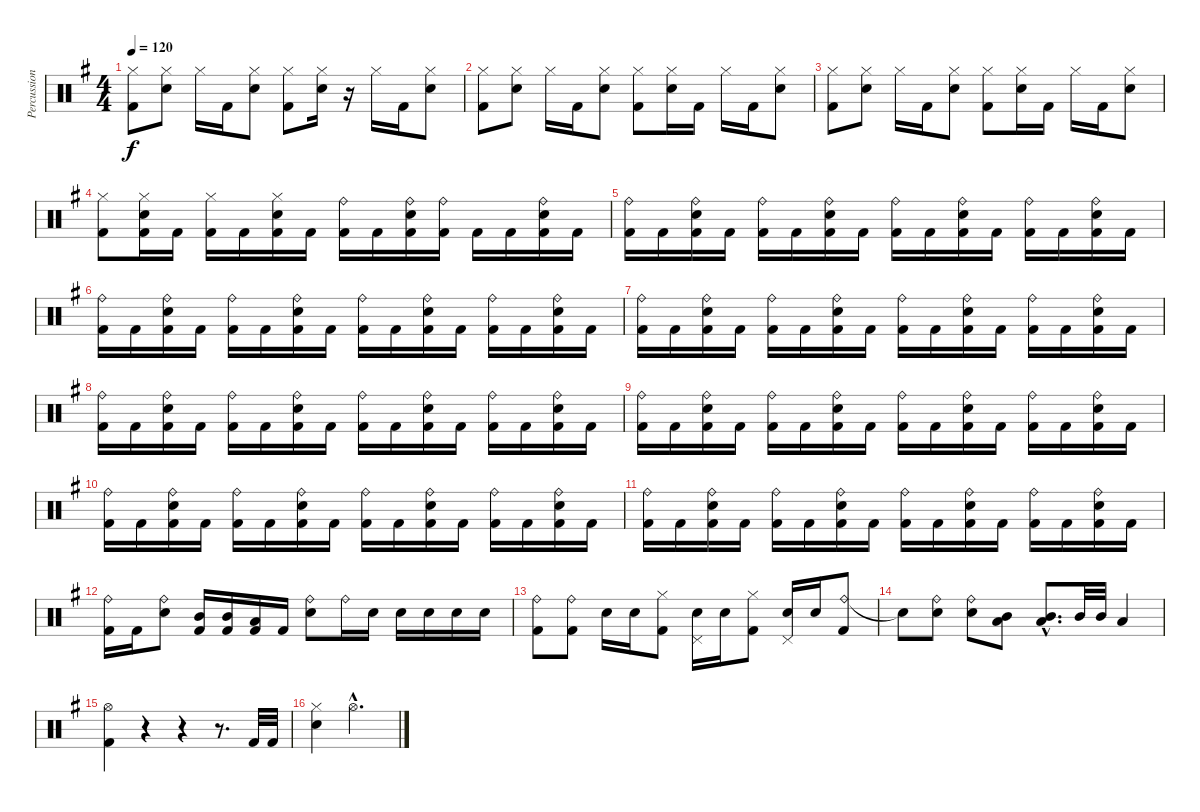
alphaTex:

\track ("Percussion" "Percussion") {instrument percussion}
\staff {score}
\articulation defaults
\ts (4 4)
\tempo 120
\clef neutral
\ks eminor
("Hi-Hat (closed)" "Kick (hit) 2").8{dy f} ("Hi-Hat (closed)" "Snare (hit) 2").8 "Hi-Hat (closed)".16 "Kick (hit) 2".16 ("Hi-Hat (closed)" "Snare (hit) 2").8 ("Hi-Hat (closed)" "Kick (hit) 2").8 ("Hi-Hat (closed)" "Snare (hit) 2").16 r.16 "Hi-Hat (closed)".16 "Kick (hit) 2".16 ("Hi-Hat (closed)" "Snare (hit) 2").8 |
("Hi-Hat (closed)" "Kick (hit) 2").8 ("Hi-Hat (closed)" "Snare (hit) 2").8 "Hi-Hat (closed)".16 "Kick (hit) 2".16 ("Hi-Hat (closed)" "Snare (hit) 2").8 ("Hi-Hat (closed)" "Kick (hit) 2").8 ("Hi-Hat (closed)" "Snare (hit) 2").16 "Kick (hit) 2".16 "Hi-Hat (closed)".16 "Kick (hit) 2".16 ("Hi-Hat (closed)" "Snare (hit) 2").8 |
("Hi-Hat (closed)" "Kick (hit) 2").8 ("Hi-Hat (closed)" "Snare (hit) 2").8 "Hi-Hat (closed)".16 "Kick (hit) 2".16 ("Hi-Hat (closed)" "Snare (hit) 2").8 ("Hi-Hat (closed)" "Kick (hit) 2").8 ("Hi-Hat (closed)" "Snare (hit) 2").16 "Kick (hit) 2".16 "Hi-Hat (closed)".16 "Kick (hit) 2".16 ("Hi-Hat (closed)" "Snare (hit) 2").8 |
("Hi-Hat (closed)" "Kick (hit) 2").8 ("Hi-Hat (closed)" "Snare (hit) 2" "Kick (hit) 2").16 "Kick (hit) 2".16 ("Hi-Hat (closed)" "Kick (hit) 2").16 "Kick (hit) 2".16 ("Hi-Hat (closed)" "Snare (hit) 2" "Kick (hit) 2").16 "Kick (hit) 2".16 ("Ride (bell)" "Kick (hit) 2").16 "Kick (hit) 2".16 ("Ride (bell)" "Snare (hit) 2" "Kick (hit) 2").16 ("Ride (bell)" "Kick (hit) 2").16 "Kick (hit) 2".16 "Kick (hit) 2".16 ("Ride (bell)" "Snare (hit) 2" "Kick (hit) 2").16 "Kick (hit) 2".16 |
("Ride (bell)" "Kick (hit) 2").16 "Kick (hit) 2".16 ("Ride (bell)" "Snare (hit) 2" "Kick (hit) 2").16 "Kick (hit) 2".16 ("Ride (bell)" "Kick (hit) 2").16 "Kick (hit) 2".16 ("Ride (bell)" "Snare (hit) 2" "Kick (hit) 2").16 "Kick (hit) 2".16 ("Ride (bell)" "Kick (hit) 2").16 "Kick (hit) 2".16 ("Ride (bell)" "Snare (hit) 2" "Kick (hit) 2").16 "Kick (hit) 2".16 ("Ride (bell)" "Kick (hit) 2").16 "Kick (hit) 2".16 ("Ride (bell)" "Snare (hit) 2" "Kick (hit) 2").16 "Kick (hit) 2".16 |
("Ride (bell)" "Kick (hit) 2").16 "Kick (hit) 2".16 ("Ride (bell)" "Snare (hit) 2" "Kick (hit) 2").16 "Kick (hit) 2".16 ("Ride (bell)" "Kick (hit) 2").16 "Kick (hit) 2".16 ("Ride (bell)" "Snare (hit) 2" "Kick (hit) 2").16 "Kick (hit) 2".16 ("Ride (bell)" "Kick (hit) 2").16 "Kick (hit) 2".16 ("Ride (bell)" "Snare (hit) 2" "Kick (hit) 2").16 "Kick (hit) 2".16 ("Ride (bell)" "Kick (hit) 2").16 "Kick (hit) 2".16 ("Ride (bell)" "Snare (hit) 2" "Kick (hit) 2").16 "Kick (hit) 2".16 |
("Ride (bell)" "Kick (hit) 2").16 "Kick (hit) 2".16 ("Ride (bell)" "Snare (hit) 2" "Kick (hit) 2").16 "Kick (hit) 2".16 ("Ride (bell)" "Kick (hit) 2").16 "Kick (hit) 2".16 ("Ride (bell)" "Snare (hit) 2" "Kick (hit) 2").16 "Kick (hit) 2".16 ("Ride (bell)" "Kick (hit) 2").16 "Kick (hit) 2".16 ("Ride (bell)" "Snare (hit) 2" "Kick (hit) 2").16 "Kick (hit) 2".16 ("Ride (bell)" "Kick (hit) 2").16 "Kick (hit) 2".16 ("Ride (bell)" "Snare (hit) 2" "Kick (hit) 2").16 "Kick (hit) 2".16 |
("Ride (bell)" "Kick (hit) 2").16 "Kick (hit) 2".16 ("Ride (bell)" "Snare (hit) 2" "Kick (hit) 2").16 "Kick (hit) 2".16 ("Ride (bell)" "Kick (hit) 2").16 "Kick (hit) 2".16 ("Ride (bell)" "Snare (hit) 2" "Kick (hit) 2").16 "Kick (hit) 2".16 ("Ride (bell)" "Kick (hit) 2").16 "Kick (hit) 2".16 ("Ride (bell)" "Snare (hit) 2" "Kick (hit) 2").16 "Kick (hit) 2".16 ("Ride (bell)" "Kick (hit) 2").16 "Kick (hit) 2".16 ("Ride (bell)" "Snare (hit) 2" "Kick (hit) 2").16 "Kick (hit) 2".16 |
("Ride (bell)" "Kick (hit) 2").16 "Kick (hit) 2".16 ("Ride (bell)" "Snare (hit) 2" "Kick (hit) 2").16 "Kick (hit) 2".16 ("Ride (bell)" "Kick (hit) 2").16 "Kick (hit) 2".16 ("Ride (bell)" "Snare (hit) 2" "Kick (hit) 2").16 "Kick (hit) 2".16 ("Ride (bell)" "Kick (hit) 2").16 "Kick (hit) 2".16 ("Ride (bell)" "Snare (hit) 2" "Kick (hit) 2").16 "Kick (hit) 2".16 ("Ride (bell)" "Kick (hit) 2").16 "Kick (hit) 2".16 ("Ride (bell)" "Snare (hit) 2" "Kick (hit) 2").16 "Kick (hit) 2".16 |
("Ride (bell)" "Kick (hit) 2").16 "Kick (hit) 2".16 ("Ride (bell)" "Snare (hit) 2" "Kick (hit) 2").16 "Kick (hit) 2".16 ("Ride (bell)" "Kick (hit) 2").16 "Kick (hit) 2".16 ("Ride (bell)" "Snare (hit) 2" "Kick (hit) 2").16 "Kick (hit) 2".16 ("Ride (bell)" "Kick (hit) 2").16 "Kick (hit) 2".16 ("Ride (bell)" "Snare (hit) 2" "Kick (hit) 2").16 "Kick (hit) 2".16 ("Ride (bell)" "Kick (hit) 2").16 "Kick (hit) 2".16 ("Ride (bell)" "Snare (hit) 2" "Kick (hit) 2").16 "Kick (hit) 2".16 |
("Ride (bell)" "Kick (hit) 2").16 "Kick (hit) 2".16 ("Ride (bell)" "Snare (hit) 2" "Kick (hit) 2").16 "Kick (hit) 2".16 ("Ride (bell)" "Kick (hit) 2").16 "Kick (hit) 2".16 ("Ride (bell)" "Snare (hit) 2" "Kick (hit) 2").16 "Kick (hit) 2".16 ("Ride (bell)" "Kick (hit) 2").16 "Kick (hit) 2".16 ("Ride (bell)" "Snare (hit) 2" "Kick (hit) 2").16 "Kick (hit) 2".16 ("Ride (bell)" "Kick (hit) 2").16 "Kick (hit) 2".16 ("Ride (bell)" "Snare (hit) 2" "Kick (hit) 2").16 "Kick (hit) 2".16 |
("Ride (bell)" "Kick (hit) 2").16 "Kick (hit) 2".16 ("Ride (bell)" "Snare (hit) 2").8 ("Mid Tom (hit)" "Kick (hit) 2").16 ("Mid Tom (hit)" "Kick (hit) 2").16 ("Low Tom (hit)" "Kick (hit) 2").16 "Kick (hit) 2".16 ("Ride (bell)" "Snare (hit) 2").8 "Ride (bell)".16 "Snare (hit) 2".16 "Snare (hit) 2".16 "Snare (hit) 2".16 "Snare (hit) 2".16 "Snare (hit) 2".16 |
("Ride (bell)" "Kick (hit) 2").8 ("Ride (bell)" "Kick (hit) 2").8 "Snare (hit) 2".16 "Snare (hit) 2".16 ("Hi-Hat (closed)" "Kick (hit) 2").8 ("Pedal Hi-Hat (hit)" "Snare (hit) 2").16 "Snare (hit) 2".16 ("Hi-Hat (closed)" "Kick (hit) 2").8 ("Pedal Hi-Hat (hit)" "Snare (hit) 2").16 "Snare (hit) 2".16 ("Ride (bell)" "Kick (hit) 2").8 |
"Snare (hit)"{t}.8 ("Ride (bell)" "Snare (hit) 2").8 ("Ride (bell)" "Snare (hit) 2").8 ("Mid Tom (hit)" "Low Tom (hit)").8 ("Mid Tom (hit)"{hac} "Low Tom (hit)"{hac}).8{d} "Mid Tom (hit)".32 "Mid Tom (hit)".32 "Low Tom (hit)".4 |
("Hi-Hat (open)" "Kick (hit) 2").4 r.4 r.4 r.8{d} "Kick (hit) 2".32 "Kick (hit) 2".32 |
("Hi-Hat (closed)" "Snare (hit) 2").4 "Hi-Hat (open)"{hac}.2{d}
